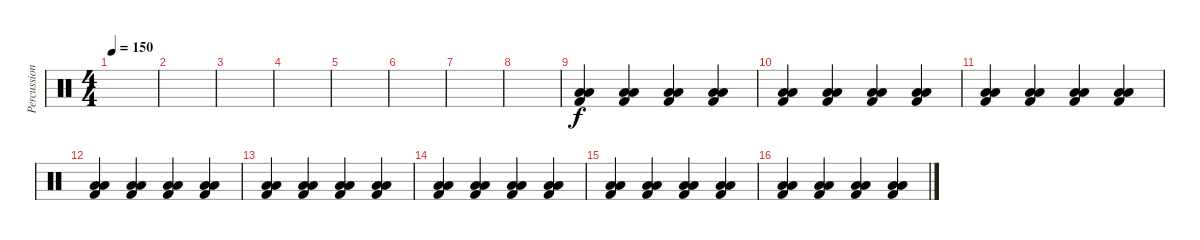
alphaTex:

\track ("Percussion" "Percussion") {instrument percussion}
\staff {score}
\articulation defaults
\ts (4 4)
\tempo 150
\clef neutral
\ks c
|
|
|
|
|
|
|
|
("Kick (hit) 2" "Low Tom (hit)" "Low Tom (hit)").4 ("Kick (hit) 2" "Low Tom (hit)" "Low Tom (hit)").4 ("Kick (hit) 2" "Low Tom (hit)" "Low Tom (hit)").4 ("Kick (hit) 2" "Low Tom (hit)" "Low Tom (hit)").4 |
("Kick (hit) 2" "Low Tom (hit)" "Low Tom (hit)").4 ("Kick (hit) 2" "Low Tom (hit)" "Low Tom (hit)").4 ("Kick (hit) 2" "Low Tom (hit)" "Low Tom (hit)").4 ("Kick (hit) 2" "Low Tom (hit)" "Low Tom (hit)").4 |
("Kick (hit) 2" "Low Tom (hit)" "Low Tom (hit)").4 ("Kick (hit) 2" "Low Tom (hit)" "Low Tom (hit)").4 ("Kick (hit) 2" "Low Tom (hit)" "Low Tom (hit)").4 ("Kick (hit) 2" "Low Tom (hit)" "Low Tom (hit)").4 |
("Kick (hit) 2" "Low Tom (hit)" "Low Tom (hit)").4 ("Kick (hit) 2" "Low Tom (hit)" "Low Tom (hit)").4 ("Kick (hit) 2" "Low Tom (hit)" "Low Tom (hit)").4 ("Kick (hit) 2" "Low Tom (hit)" "Low Tom (hit)").4 |
("Kick (hit) 2" "Low Tom (hit)" "Low Tom (hit)").4 ("Kick (hit) 2" "Low Tom (hit)" "Low Tom (hit)").4 ("Kick (hit) 2" "Low Tom (hit)" "Low Tom (hit)").4 ("Kick (hit) 2" "Low Tom (hit)" "Low Tom (hit)").4 |
("Kick (hit) 2" "Low Tom (hit)" "Low Tom (hit)").4 ("Kick (hit) 2" "Low Tom (hit)" "Low Tom (hit)").4 ("Kick (hit) 2" "Low Tom (hit)" "Low Tom (hit)").4 ("Kick (hit) 2" "Low Tom (hit)" "Low Tom (hit)").4 |
("Kick (hit) 2" "Low Tom (hit)" "Low Tom (hit)").4 ("Kick (hit) 2" "Low Tom (hit)" "Low Tom (hit)").4 ("Kick (hit) 2" "Low Tom (hit)" "Low Tom (hit)").4 ("Kick (hit) 2" "Low Tom (hit)" "Low Tom (hit)").4 |
("Kick (hit) 2" "Low Tom (hit)" "Low Tom (hit)").4 ("Kick (hit) 2" "Low Tom (hit)" "Low Tom (hit)").4 ("Kick (hit) 2" "Low Tom (hit)" "Low Tom (hit)").4 ("Kick (hit) 2" "Low Tom (hit)" "Low Tom (hit)").4
